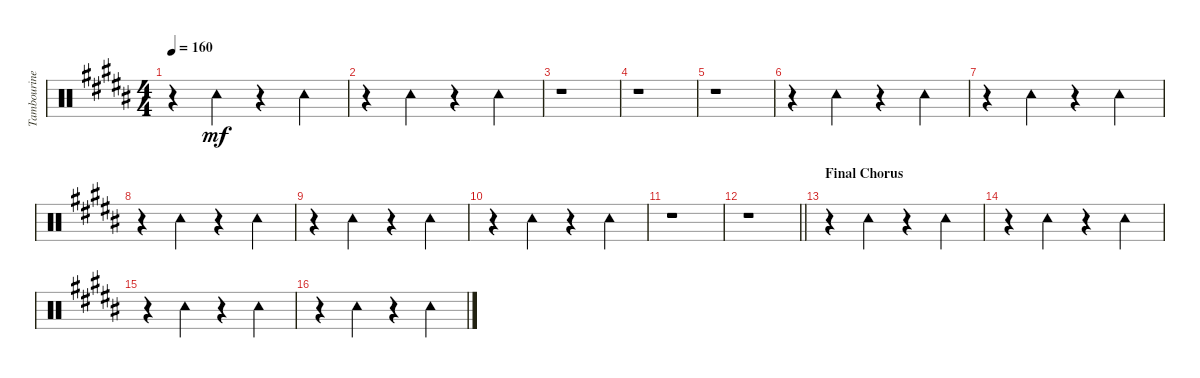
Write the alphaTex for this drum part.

\track ("Tambourine" "Tambourine") {instrument percussion}
\staff {score}
\articulation defaults
\ts (4 4)
\tempo 160
\clef neutral
\ks b
r.4{dy mf} "Tambourine (hit)".4 r.4 "Tambourine (hit)".4 |
r.4 "Tambourine (hit)".4 r.4 "Tambourine (hit)".4 |
r.1 |
r.1 |
r.1 |
r.4 "Tambourine (hit)".4 r.4 "Tambourine (hit)".4 |
r.4 "Tambourine (hit)".4 r.4 "Tambourine (hit)".4 |
r.4 "Tambourine (hit)".4 r.4 "Tambourine (hit)".4 |
r.4 "Tambourine (hit)".4 r.4 "Tambourine (hit)".4 |
r.4 "Tambourine (hit)".4 r.4 "Tambourine (hit)".4 |
r.1 |
\barLineRight lightlight
r.1 |
\section ("" "Final Chorus")
r.4 "Tambourine (hit)".4 r.4 "Tambourine (hit)".4 |
r.4 "Tambourine (hit)".4 r.4 "Tambourine (hit)".4 |
r.4 "Tambourine (hit)".4 r.4 "Tambourine (hit)".4 |
r.4 "Tambourine (hit)".4 r.4 "Tambourine (hit)".4
